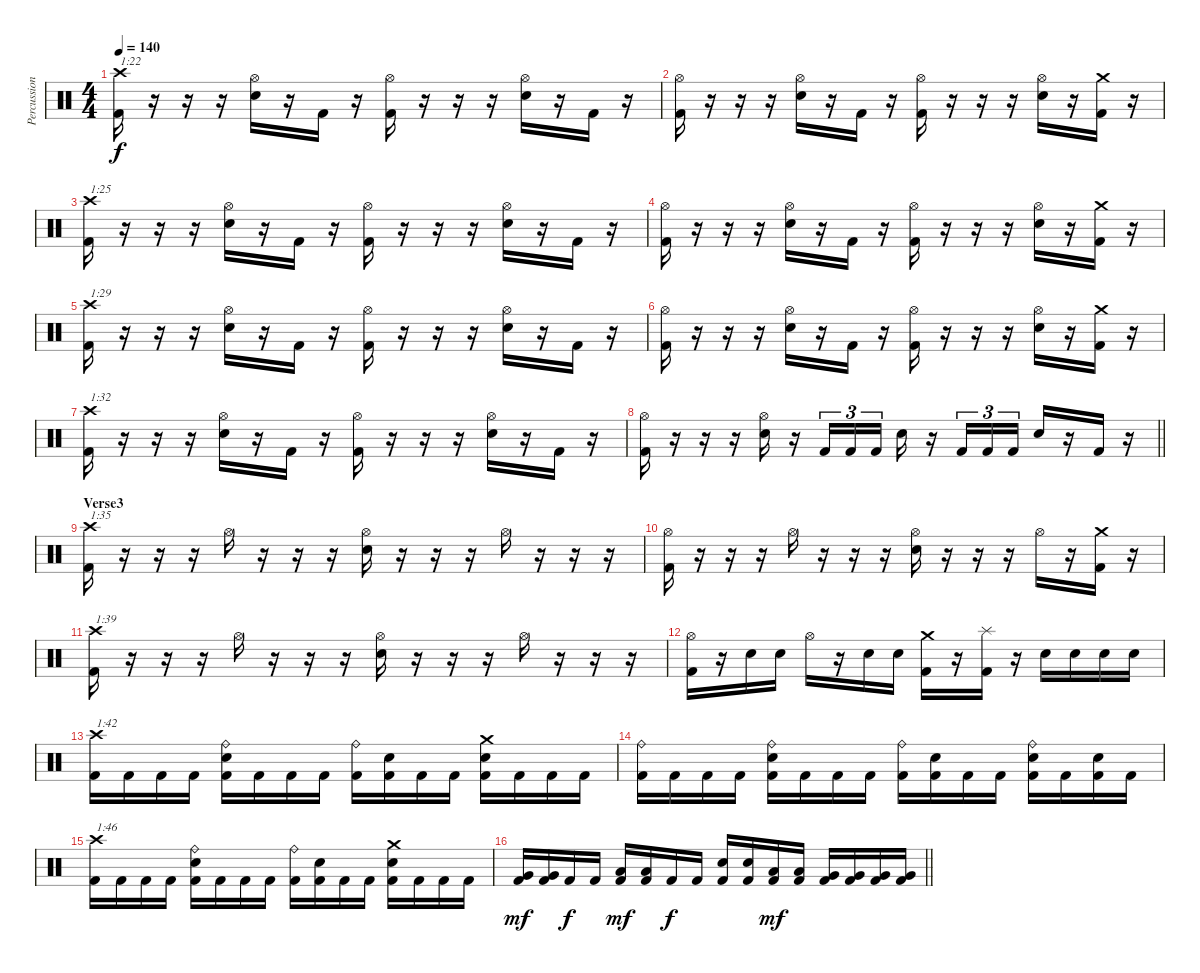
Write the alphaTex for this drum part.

\track ("Percussion" "Percussion") {instrument percussion}
\staff {score}
\articulation defaults
\ts (4 4)
\tempo 140
\clef neutral
\ks c
("Crash high (hit)" "Kick (hit) 2").16{txt "1:22" dy f} r.16 r.16 r.16 ("Hi-Hat (open)" "Electric Snare (hit)").16 r.16 "Kick (hit) 2".16 r.16 ("Hi-Hat (open)" "Kick (hit) 2").16 r.16 r.16 r.16 ("Hi-Hat (open)" "Electric Snare (hit)").16 r.16 "Kick (hit) 2".16 r.16 |
("Hi-Hat (open)" "Kick (hit) 2").16 r.16 r.16 r.16 ("Hi-Hat (open)" "Electric Snare (hit)").16 r.16 "Kick (hit) 2".16 r.16 ("Hi-Hat (open)" "Kick (hit) 2").16 r.16 r.16 r.16 ("Hi-Hat (open)" "Electric Snare (hit)").16 r.16 ("Crash medium (hit)" "Kick (hit) 2").16 r.16 |
("Crash high (hit)" "Kick (hit) 2").16{txt "1:25"} r.16 r.16 r.16 ("Hi-Hat (open)" "Electric Snare (hit)").16 r.16 "Kick (hit) 2".16 r.16 ("Hi-Hat (open)" "Kick (hit) 2").16 r.16 r.16 r.16 ("Hi-Hat (open)" "Electric Snare (hit)").16 r.16 "Kick (hit) 2".16 r.16 |
("Hi-Hat (open)" "Kick (hit) 2").16 r.16 r.16 r.16 ("Hi-Hat (open)" "Electric Snare (hit)").16 r.16 "Kick (hit) 2".16 r.16 ("Hi-Hat (open)" "Kick (hit) 2").16 r.16 r.16 r.16 ("Hi-Hat (open)" "Electric Snare (hit)").16 r.16 ("Crash medium (hit)" "Kick (hit) 2").16 r.16 |
("Crash high (hit)" "Kick (hit) 2").16{txt "1:29"} r.16 r.16 r.16 ("Hi-Hat (open)" "Electric Snare (hit)").16 r.16 "Kick (hit) 2".16 r.16 ("Hi-Hat (open)" "Kick (hit) 2").16 r.16 r.16 r.16 ("Hi-Hat (open)" "Electric Snare (hit)").16 r.16 "Kick (hit) 2".16 r.16 |
("Hi-Hat (open)" "Kick (hit) 2").16 r.16 r.16 r.16 ("Hi-Hat (open)" "Electric Snare (hit)").16 r.16 "Kick (hit) 2".16 r.16 ("Hi-Hat (open)" "Kick (hit) 2").16 r.16 r.16 r.16 ("Hi-Hat (open)" "Electric Snare (hit)").16 r.16 ("Crash medium (hit)" "Kick (hit) 2").16 r.16 |
("Crash high (hit)" "Kick (hit) 2").16{txt "1:32"} r.16 r.16 r.16 ("Hi-Hat (open)" "Electric Snare (hit)").16 r.16 "Kick (hit) 2".16 r.16 ("Hi-Hat (open)" "Kick (hit) 2").16 r.16 r.16 r.16 ("Hi-Hat (open)" "Electric Snare (hit)").16 r.16 "Kick (hit) 2".16 r.16 |
\barLineRight lightlight
("Hi-Hat (open)" "Kick (hit) 2").16 r.16 r.16 r.16 ("Hi-Hat (open)" "Electric Snare (hit)").16 r.16 "Kick (hit) 2".16{tu (3 2)} "Kick (hit) 2".16{tu (3 2)} "Kick (hit) 2".16{tu (3 2)} "Electric Snare (hit)".16 r.16 "Kick (hit) 2".16{tu (3 2)} "Kick (hit) 2".16{tu (3 2)} "Kick (hit) 2".16{tu (3 2)} "Electric Snare (hit)".16 r.16 "Kick (hit) 2".16 r.16 |
\section ("" "Verse3")
("Crash high (hit)" "Kick (hit) 2").16{txt "1:35"} r.16 r.16 r.16 "Hi-Hat (open)".16 r.16 r.16 r.16 ("Hi-Hat (open)" "Electric Snare (hit)").16 r.16 r.16 r.16 "Hi-Hat (open)".16 r.16 r.16 r.16 |
("Hi-Hat (open)" "Kick (hit) 2").16 r.16 r.16 r.16 "Hi-Hat (open)".16 r.16 r.16 r.16 ("Hi-Hat (open)" "Electric Snare (hit)").16 r.16 r.16 r.16 "Hi-Hat (open)".16 r.16 ("Crash medium (hit)" "Kick (hit) 2").16 r.16 |
("Crash high (hit)" "Kick (hit) 2").16{txt "1:39"} r.16 r.16 r.16 "Hi-Hat (open)".16 r.16 r.16 r.16 ("Hi-Hat (open)" "Electric Snare (hit)").16 r.16 r.16 r.16 "Hi-Hat (open)".16 r.16 r.16 r.16 |
("Hi-Hat (open)" "Kick (hit) 2").16 r.16 "Electric Snare (hit)".16 "Electric Snare (hit)".16 "Hi-Hat (open)".16 r.16 "Electric Snare (hit)".16 "Electric Snare (hit)".16 ("Crash medium (hit)" "Kick (hit) 2").16 r.16 ("Splash (hit)" "Kick (hit) 2").16 r.16 "Electric Snare (hit)".16 "Electric Snare (hit)".16 "Electric Snare (hit)".16 "Electric Snare (hit)".16 |
("Crash high (hit)" "Kick (hit) 2").16{txt "1:42"} "Kick (hit) 2".16 "Kick (hit) 2".16 "Kick (hit) 2".16 ("Ride (bell)" "Electric Snare (hit)" "Kick (hit) 2").16 "Kick (hit) 2".16 "Kick (hit) 2".16 "Kick (hit) 2".16 ("Ride (bell)" "Kick (hit) 2").16 ("Electric Snare (hit)" "Kick (hit) 2").16 "Kick (hit) 2".16 "Kick (hit) 2".16 ("Crash medium (hit)" "Electric Snare (hit)" "Kick (hit) 2").16 "Kick (hit) 2".16 "Kick (hit) 2".16 "Kick (hit) 2".16 |
("Ride (bell)" "Kick (hit) 2").16 "Kick (hit) 2".16 "Kick (hit) 2".16 "Kick (hit) 2".16 ("Ride (bell)" "Electric Snare (hit)" "Kick (hit) 2").16 "Kick (hit) 2".16 "Kick (hit) 2".16 "Kick (hit) 2".16 ("Ride (bell)" "Kick (hit) 2").16 ("Electric Snare (hit)" "Kick (hit) 2").16 "Kick (hit) 2".16 "Kick (hit) 2".16 ("Ride (bell)" "Electric Snare (hit)" "Kick (hit) 2").16 "Kick (hit) 2".16 ("Electric Snare (hit)" "Kick (hit) 2").16 "Kick (hit) 2".16 |
("Crash high (hit)" "Kick (hit) 2").16{txt "1:46"} "Kick (hit) 2".16 "Kick (hit) 2".16 "Kick (hit) 2".16 ("Ride (bell)" "Electric Snare (hit)" "Kick (hit) 2").16 "Kick (hit) 2".16 "Kick (hit) 2".16 "Kick (hit) 2".16 ("Ride (bell)" "Kick (hit) 2").16 ("Electric Snare (hit)" "Kick (hit) 2").16 "Kick (hit) 2".16 "Kick (hit) 2".16 ("Crash medium (hit)" "Electric Snare (hit)" "Kick (hit) 2").16 "Kick (hit) 2".16 "Kick (hit) 2".16 "Kick (hit) 2".16 |
\barLineRight lightlight
("Very Low Tom (hit)" "Kick (hit) 2").16{dy mf} ("Very Low Tom (hit)" "Kick (hit) 2").16 "Kick (hit) 2".16{dy f} "Kick (hit) 2".16 ("Low Floor Tom (hit)" "Kick (hit) 2").16{dy mf} ("Low Floor Tom (hit)" "Kick (hit) 2").16 "Kick (hit) 2".16{dy f} "Kick (hit) 2".16 ("Electric Snare (hit)" "Kick (hit) 2").16 ("Electric Snare (hit)" "Kick (hit) 2").16 ("Low Tom (hit)" "Kick (hit) 2").16{dy mf} ("Low Tom (hit)" "Kick (hit) 2").16 ("Very Low Tom (hit)" "Kick (hit) 2").16 ("Very Low Tom (hit)" "Kick (hit) 2").16 ("Very Low Tom (hit)" "Kick (hit) 2").16 ("Very Low Tom (hit)" "Kick (hit) 2").16
